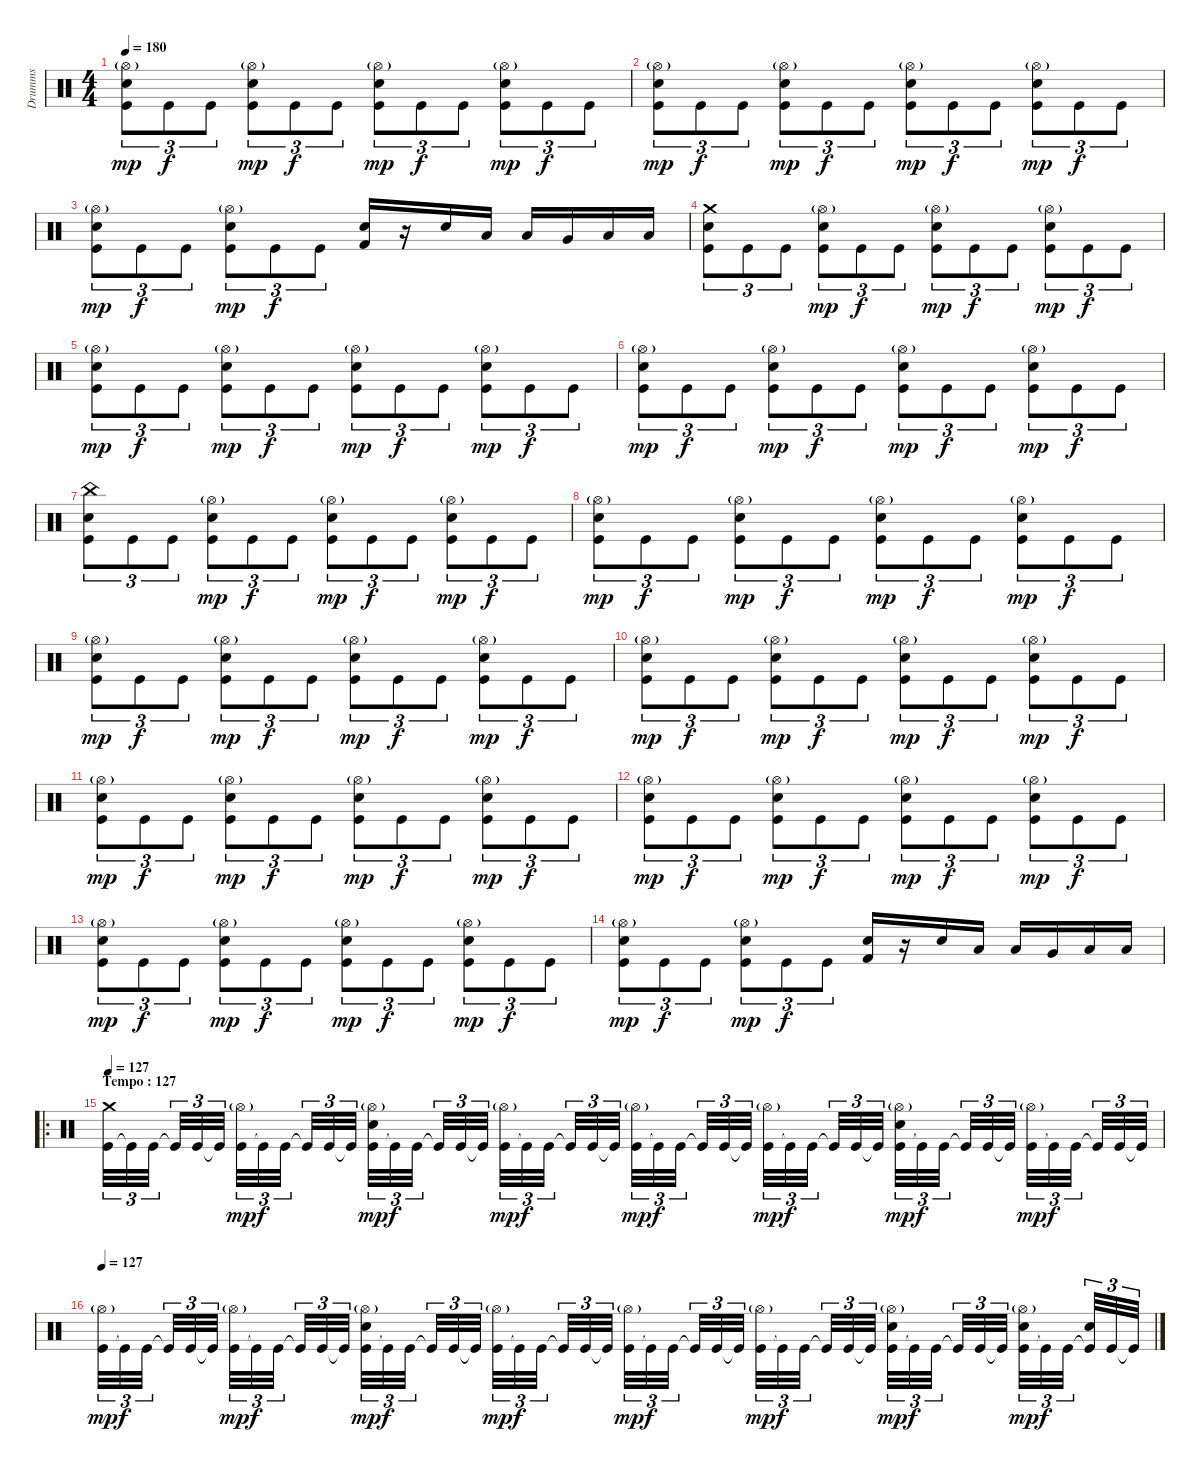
\track ("Drumms" "Drumms") {instrument percussion}
\staff {score}
\articulation defaults
\ts (4 4)
\tempo 180
\clef neutral
\ks c
("Kick (hit)" "Snare (hit) 2" "Hi-Hat (open)"{g}).8{tu (3 2) dy mp} "Kick (hit)".8{tu (3 2) dy f} "Kick (hit)".8{tu (3 2)} ("Kick (hit)" "Snare (hit) 2" "Hi-Hat (open)"{g}).8{tu (3 2) dy mp} "Kick (hit)".8{tu (3 2) dy f} "Kick (hit)".8{tu (3 2)} ("Kick (hit)" "Snare (hit) 2" "Hi-Hat (open)"{g}).8{tu (3 2) dy mp} "Kick (hit)".8{tu (3 2) dy f} "Kick (hit)".8{tu (3 2)} ("Kick (hit)" "Snare (hit) 2" "Hi-Hat (open)"{g}).8{tu (3 2) dy mp} "Kick (hit)".8{tu (3 2) dy f} "Kick (hit)".8{tu (3 2)} |
("Kick (hit)" "Snare (hit) 2" "Hi-Hat (open)"{g}).8{tu (3 2) dy mp} "Kick (hit)".8{tu (3 2) dy f} "Kick (hit)".8{tu (3 2)} ("Kick (hit)" "Snare (hit) 2" "Hi-Hat (open)"{g}).8{tu (3 2) dy mp} "Kick (hit)".8{tu (3 2) dy f} "Kick (hit)".8{tu (3 2)} ("Kick (hit)" "Snare (hit) 2" "Hi-Hat (open)"{g}).8{tu (3 2) dy mp} "Kick (hit)".8{tu (3 2) dy f} "Kick (hit)".8{tu (3 2)} ("Kick (hit)" "Snare (hit) 2" "Hi-Hat (open)"{g}).8{tu (3 2) dy mp} "Kick (hit)".8{tu (3 2) dy f} "Kick (hit)".8{tu (3 2)} |
("Kick (hit)" "Snare (hit) 2" "Hi-Hat (open)"{g}).8{tu (3 2) dy mp} "Kick (hit)".8{tu (3 2) dy f} "Kick (hit)".8{tu (3 2)} ("Kick (hit)" "Snare (hit) 2" "Hi-Hat (open)"{g}).8{tu (3 2) dy mp} "Kick (hit)".8{tu (3 2) dy f} "Kick (hit)".8{tu (3 2)} ("Snare (hit) 2" "Kick (hit) 2").16 r.16 "Snare (hit) 2".16 "Low Tom (hit)".16 "Low Tom (hit)".16 "Very Low Tom (hit)".16 "Low Floor Tom (hit)".16 "Low Floor Tom (hit)".16 |
("Kick (hit)" "Snare (hit) 2" "Crash medium (hit)").8{tu (3 2)} "Kick (hit)".8{tu (3 2)} "Kick (hit)".8{tu (3 2)} ("Kick (hit)" "Snare (hit) 2" "Hi-Hat (open)"{g}).8{tu (3 2) dy mp} "Kick (hit)".8{tu (3 2) dy f} "Kick (hit)".8{tu (3 2)} ("Kick (hit)" "Snare (hit) 2" "Hi-Hat (open)"{g}).8{tu (3 2) dy mp} "Kick (hit)".8{tu (3 2) dy f} "Kick (hit)".8{tu (3 2)} ("Kick (hit)" "Snare (hit) 2" "Hi-Hat (open)"{g}).8{tu (3 2) dy mp} "Kick (hit)".8{tu (3 2) dy f} "Kick (hit)".8{tu (3 2)} |
("Kick (hit)" "Snare (hit) 2" "Hi-Hat (open)"{g}).8{tu (3 2) dy mp} "Kick (hit)".8{tu (3 2) dy f} "Kick (hit)".8{tu (3 2)} ("Kick (hit)" "Snare (hit) 2" "Hi-Hat (open)"{g}).8{tu (3 2) dy mp} "Kick (hit)".8{tu (3 2) dy f} "Kick (hit)".8{tu (3 2)} ("Kick (hit)" "Snare (hit) 2" "Hi-Hat (open)"{g}).8{tu (3 2) dy mp} "Kick (hit)".8{tu (3 2) dy f} "Kick (hit)".8{tu (3 2)} ("Kick (hit)" "Snare (hit) 2" "Hi-Hat (open)"{g}).8{tu (3 2) dy mp} "Kick (hit)".8{tu (3 2) dy f} "Kick (hit)".8{tu (3 2)} |
("Kick (hit)" "Snare (hit) 2" "Hi-Hat (open)"{g}).8{tu (3 2) dy mp} "Kick (hit)".8{tu (3 2) dy f} "Kick (hit)".8{tu (3 2)} ("Kick (hit)" "Snare (hit) 2" "Hi-Hat (open)"{g}).8{tu (3 2) dy mp} "Kick (hit)".8{tu (3 2) dy f} "Kick (hit)".8{tu (3 2)} ("Kick (hit)" "Snare (hit) 2" "Hi-Hat (open)"{g}).8{tu (3 2) dy mp} "Kick (hit)".8{tu (3 2) dy f} "Kick (hit)".8{tu (3 2)} ("Kick (hit)" "Snare (hit) 2" "Hi-Hat (open)"{g}).8{tu (3 2) dy mp} "Kick (hit)".8{tu (3 2) dy f} "Kick (hit)".8{tu (3 2)} |
("Kick (hit)" "Snare (hit) 2" "China (hit)").8{tu (3 2)} "Kick (hit)".8{tu (3 2)} "Kick (hit)".8{tu (3 2)} ("Kick (hit)" "Snare (hit) 2" "Hi-Hat (open)"{g}).8{tu (3 2) dy mp} "Kick (hit)".8{tu (3 2) dy f} "Kick (hit)".8{tu (3 2)} ("Kick (hit)" "Snare (hit) 2" "Hi-Hat (open)"{g}).8{tu (3 2) dy mp} "Kick (hit)".8{tu (3 2) dy f} "Kick (hit)".8{tu (3 2)} ("Kick (hit)" "Snare (hit) 2" "Hi-Hat (open)"{g}).8{tu (3 2) dy mp} "Kick (hit)".8{tu (3 2) dy f} "Kick (hit)".8{tu (3 2)} |
("Kick (hit)" "Snare (hit) 2" "Hi-Hat (open)"{g}).8{tu (3 2) dy mp} "Kick (hit)".8{tu (3 2) dy f} "Kick (hit)".8{tu (3 2)} ("Kick (hit)" "Snare (hit) 2" "Hi-Hat (open)"{g}).8{tu (3 2) dy mp} "Kick (hit)".8{tu (3 2) dy f} "Kick (hit)".8{tu (3 2)} ("Kick (hit)" "Snare (hit) 2" "Hi-Hat (open)"{g}).8{tu (3 2) dy mp} "Kick (hit)".8{tu (3 2) dy f} "Kick (hit)".8{tu (3 2)} ("Kick (hit)" "Snare (hit) 2" "Hi-Hat (open)"{g}).8{tu (3 2) dy mp} "Kick (hit)".8{tu (3 2) dy f} "Kick (hit)".8{tu (3 2)} |
("Kick (hit)" "Snare (hit) 2" "Hi-Hat (open)"{g}).8{tu (3 2) dy mp} "Kick (hit)".8{tu (3 2) dy f} "Kick (hit)".8{tu (3 2)} ("Kick (hit)" "Snare (hit) 2" "Hi-Hat (open)"{g}).8{tu (3 2) dy mp} "Kick (hit)".8{tu (3 2) dy f} "Kick (hit)".8{tu (3 2)} ("Kick (hit)" "Snare (hit) 2" "Hi-Hat (open)"{g}).8{tu (3 2) dy mp} "Kick (hit)".8{tu (3 2) dy f} "Kick (hit)".8{tu (3 2)} ("Kick (hit)" "Snare (hit) 2" "Hi-Hat (open)"{g}).8{tu (3 2) dy mp} "Kick (hit)".8{tu (3 2) dy f} "Kick (hit)".8{tu (3 2)} |
("Kick (hit)" "Snare (hit) 2" "Hi-Hat (open)"{g}).8{tu (3 2) dy mp} "Kick (hit)".8{tu (3 2) dy f} "Kick (hit)".8{tu (3 2)} ("Kick (hit)" "Snare (hit) 2" "Hi-Hat (open)"{g}).8{tu (3 2) dy mp} "Kick (hit)".8{tu (3 2) dy f} "Kick (hit)".8{tu (3 2)} ("Kick (hit)" "Snare (hit) 2" "Hi-Hat (open)"{g}).8{tu (3 2) dy mp} "Kick (hit)".8{tu (3 2) dy f} "Kick (hit)".8{tu (3 2)} ("Kick (hit)" "Snare (hit) 2" "Hi-Hat (open)"{g}).8{tu (3 2) dy mp} "Kick (hit)".8{tu (3 2) dy f} "Kick (hit)".8{tu (3 2)} |
("Kick (hit)" "Snare (hit) 2" "Hi-Hat (open)"{g}).8{tu (3 2) dy mp} "Kick (hit)".8{tu (3 2) dy f} "Kick (hit)".8{tu (3 2)} ("Kick (hit)" "Snare (hit) 2" "Hi-Hat (open)"{g}).8{tu (3 2) dy mp} "Kick (hit)".8{tu (3 2) dy f} "Kick (hit)".8{tu (3 2)} ("Kick (hit)" "Snare (hit) 2" "Hi-Hat (open)"{g}).8{tu (3 2) dy mp} "Kick (hit)".8{tu (3 2) dy f} "Kick (hit)".8{tu (3 2)} ("Kick (hit)" "Snare (hit) 2" "Hi-Hat (open)"{g}).8{tu (3 2) dy mp} "Kick (hit)".8{tu (3 2) dy f} "Kick (hit)".8{tu (3 2)} |
("Kick (hit)" "Snare (hit) 2" "Hi-Hat (open)"{g}).8{tu (3 2) dy mp} "Kick (hit)".8{tu (3 2) dy f} "Kick (hit)".8{tu (3 2)} ("Kick (hit)" "Snare (hit) 2" "Hi-Hat (open)"{g}).8{tu (3 2) dy mp} "Kick (hit)".8{tu (3 2) dy f} "Kick (hit)".8{tu (3 2)} ("Kick (hit)" "Snare (hit) 2" "Hi-Hat (open)"{g}).8{tu (3 2) dy mp} "Kick (hit)".8{tu (3 2) dy f} "Kick (hit)".8{tu (3 2)} ("Kick (hit)" "Snare (hit) 2" "Hi-Hat (open)"{g}).8{tu (3 2) dy mp} "Kick (hit)".8{tu (3 2) dy f} "Kick (hit)".8{tu (3 2)} |
("Kick (hit)" "Snare (hit) 2" "Hi-Hat (open)"{g}).8{tu (3 2) dy mp} "Kick (hit)".8{tu (3 2) dy f} "Kick (hit)".8{tu (3 2)} ("Kick (hit)" "Snare (hit) 2" "Hi-Hat (open)"{g}).8{tu (3 2) dy mp} "Kick (hit)".8{tu (3 2) dy f} "Kick (hit)".8{tu (3 2)} ("Kick (hit)" "Snare (hit) 2" "Hi-Hat (open)"{g}).8{tu (3 2) dy mp} "Kick (hit)".8{tu (3 2) dy f} "Kick (hit)".8{tu (3 2)} ("Kick (hit)" "Snare (hit) 2" "Hi-Hat (open)"{g}).8{tu (3 2) dy mp} "Kick (hit)".8{tu (3 2) dy f} "Kick (hit)".8{tu (3 2)} |
("Kick (hit)" "Snare (hit) 2" "Hi-Hat (open)"{g}).8{tu (3 2) dy mp} "Kick (hit)".8{tu (3 2) dy f} "Kick (hit)".8{tu (3 2)} ("Kick (hit)" "Snare (hit) 2" "Hi-Hat (open)"{g}).8{tu (3 2) dy mp} "Kick (hit)".8{tu (3 2) dy f} "Kick (hit)".8{tu (3 2)} ("Snare (hit) 2" "Kick (hit) 2").16 r.16 "Snare (hit) 2".16 "Low Tom (hit)".16 "Low Tom (hit)".16 "Very Low Tom (hit)".16 "Low Floor Tom (hit)".16 "Low Floor Tom (hit)".16 |
\ro
\section ("" "Tempo : 127")
\tempo 127
("Kick (hit)" "Crash medium (hit)").32{tu (3 2)} "Kick (hit)"{t}.32{tu (3 2)} "Kick (hit)".32{tu (3 2)} "Kick (hit)"{t}.32{tu (3 2)} "Kick (hit)".32{tu (3 2)} "Kick (hit)"{t}.32{tu (3 2)} ("Kick (hit)" "Hi-Hat (open)"{g}).32{tu (3 2) dy mp} "Kick (hit)"{t}.32{tu (3 2) dy f} "Kick (hit)".32{tu (3 2)} "Kick (hit)"{t}.32{tu (3 2)} "Kick (hit)".32{tu (3 2)} "Kick (hit)"{t}.32{tu (3 2)} ("Kick (hit)" "Snare (hit) 2" "Hi-Hat (open)"{g}).32{tu (3 2) dy mp} "Kick (hit)"{t}.32{tu (3 2) dy f} "Kick (hit)".32{tu (3 2)} "Kick (hit)"{t}.32{tu (3 2)} "Kick (hit)".32{tu (3 2)} "Kick (hit)"{t}.32{tu (3 2)} ("Kick (hit)" "Hi-Hat (open)"{g}).32{tu (3 2) dy mp} "Kick (hit)"{t}.32{tu (3 2) dy f} "Kick (hit)".32{tu (3 2)} "Kick (hit)"{t}.32{tu (3 2)} "Kick (hit)".32{tu (3 2)} "Kick (hit)"{t}.32{tu (3 2)} ("Kick (hit)" "Hi-Hat (open)"{g}).32{tu (3 2) dy mp} "Kick (hit)"{t}.32{tu (3 2) dy f} "Kick (hit)".32{tu (3 2)} "Kick (hit)"{t}.32{tu (3 2)} "Kick (hit)".32{tu (3 2)} "Kick (hit)"{t}.32{tu (3 2)} ("Kick (hit)" "Hi-Hat (open)"{g}).32{tu (3 2) dy mp} "Kick (hit)"{t}.32{tu (3 2) dy f} "Kick (hit)".32{tu (3 2)} "Kick (hit)"{t}.32{tu (3 2)} "Kick (hit)".32{tu (3 2)} "Kick (hit)"{t}.32{tu (3 2)} ("Kick (hit)" "Hi-Hat (open)"{g} "Snare (hit) 2").32{tu (3 2) dy mp} "Kick (hit)"{t}.32{tu (3 2) dy f} "Kick (hit)".32{tu (3 2)} "Kick (hit)"{t}.32{tu (3 2)} "Kick (hit)".32{tu (3 2)} "Kick (hit)"{t}.32{tu (3 2)} ("Kick (hit)" "Hi-Hat (open)"{g}).32{tu (3 2) dy mp} "Kick (hit)"{t}.32{tu (3 2) dy f} "Kick (hit)".32{tu (3 2)} "Kick (hit)"{t}.32{tu (3 2)} "Kick (hit)".32{tu (3 2)} "Kick (hit)"{t}.32{tu (3 2)} |
\tempo 127
("Kick (hit)" "Hi-Hat (open)"{g}).32{tu (3 2) dy mp} "Kick (hit)"{t}.32{tu (3 2) dy f} "Kick (hit)".32{tu (3 2)} "Kick (hit)"{t}.32{tu (3 2)} "Kick (hit)".32{tu (3 2)} "Kick (hit)"{t}.32{tu (3 2)} ("Kick (hit)" "Hi-Hat (open)"{g}).32{tu (3 2) dy mp} "Kick (hit)"{t}.32{tu (3 2) dy f} "Kick (hit)".32{tu (3 2)} "Kick (hit)"{t}.32{tu (3 2)} "Kick (hit)".32{tu (3 2)} "Kick (hit)"{t}.32{tu (3 2)} ("Kick (hit)" "Snare (hit) 2" "Hi-Hat (open)"{g}).32{tu (3 2) dy mp} "Kick (hit)"{t}.32{tu (3 2) dy f} "Kick (hit)".32{tu (3 2)} "Kick (hit)"{t}.32{tu (3 2)} "Kick (hit)".32{tu (3 2)} "Kick (hit)"{t}.32{tu (3 2)} ("Kick (hit)" "Hi-Hat (open)"{g}).32{tu (3 2) dy mp} "Kick (hit)"{t}.32{tu (3 2) dy f} "Kick (hit)".32{tu (3 2)} "Kick (hit)"{t}.32{tu (3 2)} "Kick (hit)".32{tu (3 2)} "Kick (hit)"{t}.32{tu (3 2)} ("Kick (hit)" "Hi-Hat (open)"{g}).32{tu (3 2) dy mp} "Kick (hit)"{t}.32{tu (3 2) dy f} "Kick (hit)".32{tu (3 2)} "Kick (hit)"{t}.32{tu (3 2)} "Kick (hit)".32{tu (3 2)} "Kick (hit)"{t}.32{tu (3 2)} ("Kick (hit)" "Hi-Hat (open)"{g}).32{tu (3 2) dy mp} "Kick (hit)"{t}.32{tu (3 2) dy f} "Kick (hit)".32{tu (3 2)} "Kick (hit)"{t}.32{tu (3 2)} "Kick (hit)".32{tu (3 2)} "Kick (hit)"{t}.32{tu (3 2)} ("Kick (hit)" "Hi-Hat (open)"{g} "Snare (hit) 2").32{tu (3 2) dy mp} "Kick (hit)"{t}.32{tu (3 2) dy f} "Kick (hit)".32{tu (3 2)} "Kick (hit)"{t}.32{tu (3 2)} "Kick (hit)".32{tu (3 2)} "Kick (hit)"{t}.32{tu (3 2)} ("Kick (hit)" "Hi-Hat (open)"{g} "Snare (hit) 2").32{tu (3 2) dy mp} "Kick (hit)"{t}.32{tu (3 2) dy f} "Kick (hit)".32{tu (3 2)} ("Kick (hit)"{t} "Snare (hit) 2").32{tu (3 2)} "Kick (hit)".32{tu (3 2)} "Kick (hit)"{t}.32{tu (3 2)}
